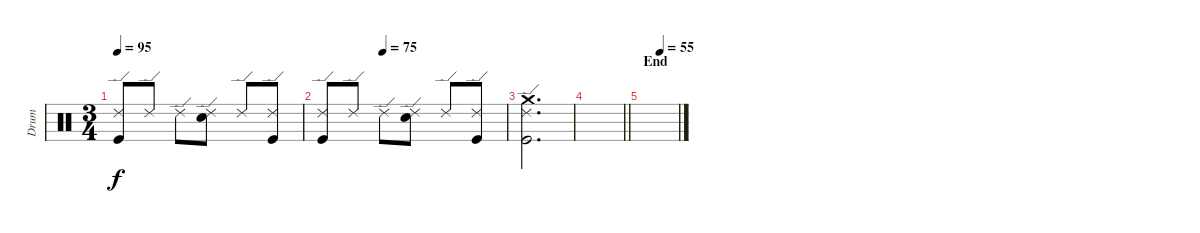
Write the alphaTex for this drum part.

\track ("Drum" "Drum") {instrument percussion}
\staff {score}
\articulation defaults
\ts (3 4)
\tempo 95
\clef neutral
\ks c
("Kick (hit)" "Ride (edge) 2").8{dy f} "Ride (edge) 2".8 "Ride (edge) 2".8 ("Snare (hit) 2" "Ride (edge) 2").8 "Ride (edge) 2".8 ("Kick (hit)" "Ride (edge) 2").8 |
\tempo (75 0.3333333333333333)
("Kick (hit)" "Ride (edge) 2").8 "Ride (edge) 2".8 "Ride (edge) 2".8 ("Snare (hit) 2" "Ride (edge) 2").8 "Ride (edge) 2".8 ("Kick (hit)" "Ride (edge) 2").8 |
("Crash medium (hit)" "Kick (hit)" "Ride (edge) 2").2{d} |
\barLineRight lightlight
|
\section ("" "End")
\tempo (55 0.5)
